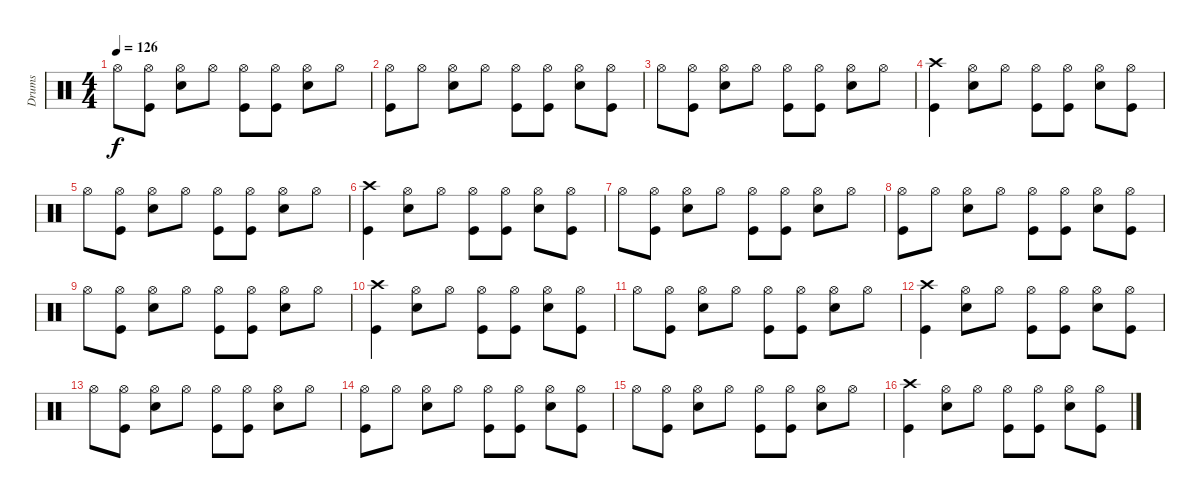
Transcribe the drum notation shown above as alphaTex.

\track ("Drums" "Drums") {instrument percussion}
\staff {score}
\articulation defaults
\ts (4 4)
\tempo 126
\clef neutral
\ks c "Hi-Hat (open)".8{dy f}
("Hi-Hat (open)" "Kick (hit)").8 ("Snare (hit) 2" "Hi-Hat (open)").8 "Hi-Hat (open)".8 ("Hi-Hat (open)" "Kick (hit)").8 ("Hi-Hat (open)" "Kick (hit)").8 ("Hi-Hat (open)" "Snare (hit) 2").8 "Hi-Hat (open)".8 |
("Hi-Hat (open)" "Kick (hit)").8 "Hi-Hat (open)".8 ("Hi-Hat (open)" "Snare (hit) 2").8 "Hi-Hat (open)".8 ("Hi-Hat (open)" "Kick (hit)").8 ("Hi-Hat (open)" "Kick (hit)").8 ("Hi-Hat (open)" "Snare (hit) 2").8 ("Hi-Hat (open)" "Kick (hit)").8 |
"Hi-Hat (open)".8 ("Hi-Hat (open)" "Kick (hit)").8 ("Snare (hit) 2" "Hi-Hat (open)").8 "Hi-Hat (open)".8 ("Hi-Hat (open)" "Kick (hit)").8 ("Hi-Hat (open)" "Kick (hit)").8 ("Hi-Hat (open)" "Snare (hit) 2").8 "Hi-Hat (open)".8 |
("Crash high (hit)" "Kick (hit)").4 ("Hi-Hat (open)" "Snare (hit) 2").8 "Hi-Hat (open)".8 ("Hi-Hat (open)" "Kick (hit)").8 ("Hi-Hat (open)" "Kick (hit)").8 ("Hi-Hat (open)" "Snare (hit) 2").8 ("Hi-Hat (open)" "Kick (hit)").8 |
"Hi-Hat (open)".8 ("Hi-Hat (open)" "Kick (hit)").8 ("Snare (hit) 2" "Hi-Hat (open)").8 "Hi-Hat (open)".8 ("Hi-Hat (open)" "Kick (hit)").8 ("Hi-Hat (open)" "Kick (hit)").8 ("Hi-Hat (open)" "Snare (hit) 2").8 "Hi-Hat (open)".8 |
("Crash high (hit)" "Kick (hit)").4 ("Hi-Hat (open)" "Snare (hit) 2").8 "Hi-Hat (open)".8 ("Hi-Hat (open)" "Kick (hit)").8 ("Hi-Hat (open)" "Kick (hit)").8 ("Hi-Hat (open)" "Snare (hit) 2").8 ("Hi-Hat (open)" "Kick (hit)").8 |
"Hi-Hat (open)".8 ("Hi-Hat (open)" "Kick (hit)").8 ("Snare (hit) 2" "Hi-Hat (open)").8 "Hi-Hat (open)".8 ("Hi-Hat (open)" "Kick (hit)").8 ("Hi-Hat (open)" "Kick (hit)").8 ("Hi-Hat (open)" "Snare (hit) 2").8 "Hi-Hat (open)".8 |
("Hi-Hat (open)" "Kick (hit)").8 "Hi-Hat (open)".8 ("Hi-Hat (open)" "Snare (hit) 2").8 "Hi-Hat (open)".8 ("Hi-Hat (open)" "Kick (hit)").8 ("Hi-Hat (open)" "Kick (hit)").8 ("Hi-Hat (open)" "Snare (hit) 2").8 ("Hi-Hat (open)" "Kick (hit)").8 |
"Hi-Hat (open)".8 ("Hi-Hat (open)" "Kick (hit)").8 ("Snare (hit) 2" "Hi-Hat (open)").8 "Hi-Hat (open)".8 ("Hi-Hat (open)" "Kick (hit)").8 ("Hi-Hat (open)" "Kick (hit)").8 ("Hi-Hat (open)" "Snare (hit) 2").8 "Hi-Hat (open)".8 |
("Crash high (hit)" "Kick (hit)").4 ("Hi-Hat (open)" "Snare (hit) 2").8 "Hi-Hat (open)".8 ("Hi-Hat (open)" "Kick (hit)").8 ("Hi-Hat (open)" "Kick (hit)").8 ("Hi-Hat (open)" "Snare (hit) 2").8 ("Hi-Hat (open)" "Kick (hit)").8 |
"Hi-Hat (open)".8 ("Hi-Hat (open)" "Kick (hit)").8 ("Snare (hit) 2" "Hi-Hat (open)").8 "Hi-Hat (open)".8 ("Hi-Hat (open)" "Kick (hit)").8 ("Hi-Hat (open)" "Kick (hit)").8 ("Hi-Hat (open)" "Snare (hit) 2").8 "Hi-Hat (open)".8 |
("Crash high (hit)" "Kick (hit)").4 ("Hi-Hat (open)" "Snare (hit) 2").8 "Hi-Hat (open)".8 ("Hi-Hat (open)" "Kick (hit)").8 ("Hi-Hat (open)" "Kick (hit)").8 ("Hi-Hat (open)" "Snare (hit) 2").8 ("Hi-Hat (open)" "Kick (hit)").8 |
"Hi-Hat (open)".8 ("Hi-Hat (open)" "Kick (hit)").8 ("Snare (hit) 2" "Hi-Hat (open)").8 "Hi-Hat (open)".8 ("Hi-Hat (open)" "Kick (hit)").8 ("Hi-Hat (open)" "Kick (hit)").8 ("Hi-Hat (open)" "Snare (hit) 2").8 "Hi-Hat (open)".8 |
("Hi-Hat (open)" "Kick (hit)").8 "Hi-Hat (open)".8 ("Hi-Hat (open)" "Snare (hit) 2").8 "Hi-Hat (open)".8 ("Hi-Hat (open)" "Kick (hit)").8 ("Hi-Hat (open)" "Kick (hit)").8 ("Hi-Hat (open)" "Snare (hit) 2").8 ("Hi-Hat (open)" "Kick (hit)").8 |
"Hi-Hat (open)".8 ("Hi-Hat (open)" "Kick (hit)").8 ("Snare (hit) 2" "Hi-Hat (open)").8 "Hi-Hat (open)".8 ("Hi-Hat (open)" "Kick (hit)").8 ("Hi-Hat (open)" "Kick (hit)").8 ("Hi-Hat (open)" "Snare (hit) 2").8 "Hi-Hat (open)".8 |
("Crash high (hit)" "Kick (hit)").4 ("Hi-Hat (open)" "Snare (hit) 2").8 "Hi-Hat (open)".8 ("Hi-Hat (open)" "Kick (hit)").8 ("Hi-Hat (open)" "Kick (hit)").8 ("Hi-Hat (open)" "Snare (hit) 2").8 ("Hi-Hat (open)" "Kick (hit)").8
